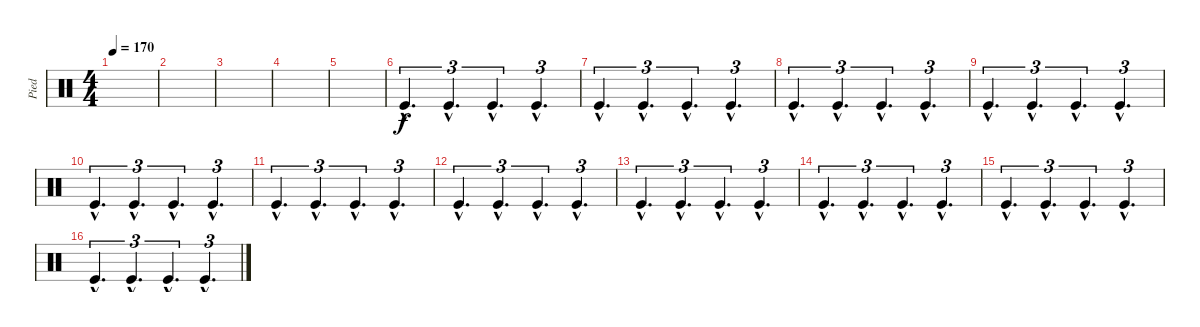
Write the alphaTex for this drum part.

\track ("Pied" "Pied") {instrument percussion}
\staff {score}
\articulation defaults
\ts (4 4)
\tempo 170
\clef neutral
\ks c
|
|
|
|
|
"Kick (hit)"{hac}.4{d tu (3 2)} "Kick (hit)"{hac}.4{d tu (3 2)} "Kick (hit)"{hac}.4{d tu (3 2)} "Kick (hit)"{hac}.4{d tu (3 2)} |
"Kick (hit)"{hac}.4{d tu (3 2)} "Kick (hit)"{hac}.4{d tu (3 2)} "Kick (hit)"{hac}.4{d tu (3 2)} "Kick (hit)"{hac}.4{d tu (3 2)} |
"Kick (hit)"{hac}.4{d tu (3 2)} "Kick (hit)"{hac}.4{d tu (3 2)} "Kick (hit)"{hac}.4{d tu (3 2)} "Kick (hit)"{hac}.4{d tu (3 2)} |
"Kick (hit)"{hac}.4{d tu (3 2)} "Kick (hit)"{hac}.4{d tu (3 2)} "Kick (hit)"{hac}.4{d tu (3 2)} "Kick (hit)"{hac}.4{d tu (3 2)} |
"Kick (hit)"{hac}.4{d tu (3 2)} "Kick (hit)"{hac}.4{d tu (3 2)} "Kick (hit)"{hac}.4{d tu (3 2)} "Kick (hit)"{hac}.4{d tu (3 2)} |
"Kick (hit)"{hac}.4{d tu (3 2)} "Kick (hit)"{hac}.4{d tu (3 2)} "Kick (hit)"{hac}.4{d tu (3 2)} "Kick (hit)"{hac}.4{d tu (3 2)} |
"Kick (hit)"{hac}.4{d tu (3 2)} "Kick (hit)"{hac}.4{d tu (3 2)} "Kick (hit)"{hac}.4{d tu (3 2)} "Kick (hit)"{hac}.4{d tu (3 2)} |
"Kick (hit)"{hac}.4{d tu (3 2)} "Kick (hit)"{hac}.4{d tu (3 2)} "Kick (hit)"{hac}.4{d tu (3 2)} "Kick (hit)"{hac}.4{d tu (3 2)} |
"Kick (hit)"{hac}.4{d tu (3 2)} "Kick (hit)"{hac}.4{d tu (3 2)} "Kick (hit)"{hac}.4{d tu (3 2)} "Kick (hit)"{hac}.4{d tu (3 2)} |
"Kick (hit)"{hac}.4{d tu (3 2)} "Kick (hit)"{hac}.4{d tu (3 2)} "Kick (hit)"{hac}.4{d tu (3 2)} "Kick (hit)"{hac}.4{d tu (3 2)} |
"Kick (hit)"{hac}.4{d tu (3 2)} "Kick (hit)"{hac}.4{d tu (3 2)} "Kick (hit)"{hac}.4{d tu (3 2)} "Kick (hit)"{hac}.4{d tu (3 2)}
